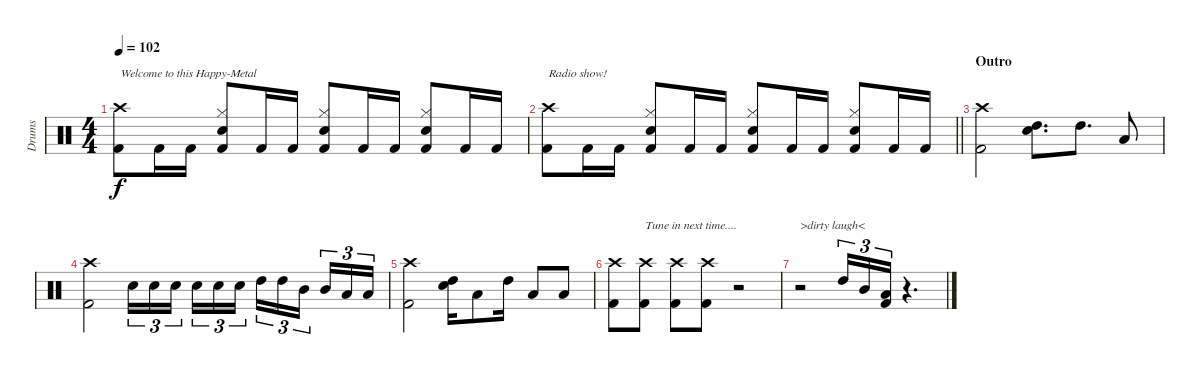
\track ("Drums" "Drums") {instrument percussion}
\staff {score}
\articulation defaults
\ts (4 4)
\tempo 102
\clef neutral
\ks c
("Crash high (hit)" "Kick (hit) 2").8{txt "Welcome to this Happy-Metal" dy f} "Kick (hit) 2".16 "Kick (hit) 2".16 ("Hi-Hat (closed)" "Snare (hit) 2" "Kick (hit) 2").8 "Kick (hit) 2".16 "Kick (hit) 2".16 ("Hi-Hat (closed)" "Snare (hit) 2" "Kick (hit) 2").8 "Kick (hit) 2".16 "Kick (hit) 2".16 ("Hi-Hat (closed)" "Snare (hit) 2" "Kick (hit) 2").8 "Kick (hit) 2".16 "Kick (hit) 2".16 |
\barLineRight lightlight
("Crash high (hit)" "Kick (hit) 2").8{txt "Radio show!"} "Kick (hit) 2".16 "Kick (hit) 2".16 ("Hi-Hat (closed)" "Snare (hit) 2" "Kick (hit) 2").8 "Kick (hit) 2".16 "Kick (hit) 2".16 ("Hi-Hat (closed)" "Snare (hit) 2" "Kick (hit) 2").8 "Kick (hit) 2".16 "Kick (hit) 2".16 ("Hi-Hat (closed)" "Snare (hit) 2" "Kick (hit) 2").8 "Kick (hit) 2".16 "Kick (hit) 2".16 |
\section ("" "Outro")
("Crash high (hit)" "Kick (hit) 2").2 ("High Tom (hit)" "Snare (hit) 2").8{d} "High Tom (hit)".8{d} "Low Tom (hit)".8 |
("Crash high (hit)" "Kick (hit) 2").2 "Snare (hit) 2".16{tu (3 2)} "Snare (hit) 2".16{tu (3 2)} "Snare (hit) 2".16{tu (3 2) beam splitsecondary} "Snare (hit) 2".16{tu (3 2)} "Snare (hit) 2".16{tu (3 2)} "Snare (hit) 2".16{tu (3 2)} "High Tom (hit)".16{tu (3 2)} "High Tom (hit)".16{tu (3 2)} "Mid Tom (hit)".16{tu (3 2) beam splitsecondary} "Mid Tom (hit)".16{tu (3 2)} "Low Tom (hit)".16{tu (3 2)} "Low Tom (hit)".16{tu (3 2)} |
("Crash high (hit)" "Kick (hit) 2").2 ("High Tom (hit)" "Snare (hit) 2").16 "Low Tom (hit)".8 "High Tom (hit)".16 "Low Tom (hit)".8 "Low Tom (hit)".8 |
("Crash high (hit)" "Kick (hit) 2").8{txt "          Tune in next time...."} ("Crash high (hit)" "Kick (hit) 2").8 ("Crash high (hit)" "Kick (hit) 2").8 ("Crash high (hit)" "Kick (hit) 2").8 r.2 |
r.2{txt ">dirty laugh<"} "High Tom (hit)".16{tu (3 2)} "Mid Tom (hit)".16{tu (3 2)} ("Low Tom (hit)" "Kick (hit) 2").16{tu (3 2)} r.4{d}
